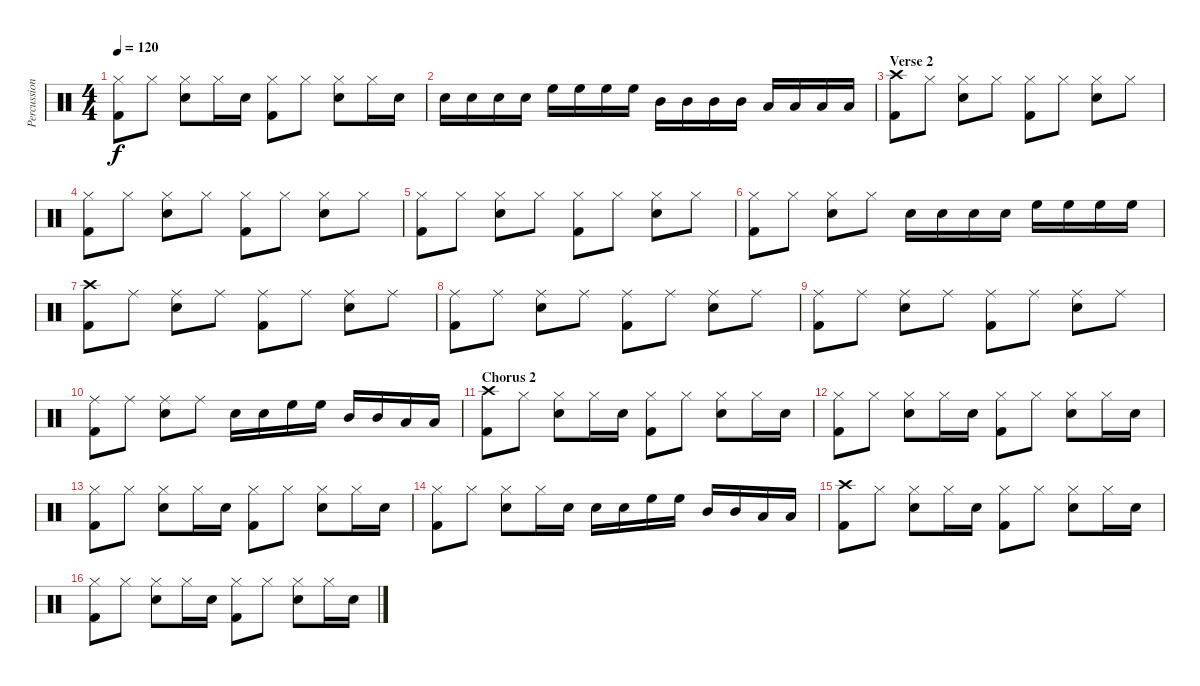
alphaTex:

\track ("Percussion" "Percussion") {instrument percussion}
\staff {score}
\articulation defaults
\ts (4 4)
\tempo 120
\clef neutral
\ks c
("Hi-Hat (closed)" "Kick (hit) 2").8{dy f} "Hi-Hat (closed)".8 ("Electric Snare (hit)" "Hi-Hat (closed)").8 "Hi-Hat (closed)".16 "Electric Snare (hit)".16 ("Hi-Hat (closed)" "Kick (hit) 2").8 "Hi-Hat (closed)".8 ("Electric Snare (hit)" "Hi-Hat (closed)").8 "Hi-Hat (closed)".16 "Electric Snare (hit)".16 |
"Electric Snare (hit)".16 "Electric Snare (hit)".16 "Electric Snare (hit)".16 "Electric Snare (hit)".16 "High Floor Tom (hit)".16 "High Floor Tom (hit)".16 "High Floor Tom (hit)".16 "High Floor Tom (hit)".16 "Mid Tom (hit)".16 "Mid Tom (hit)".16 "Mid Tom (hit)".16 "Mid Tom (hit)".16 "Low Tom (hit)".16 "Low Tom (hit)".16 "Low Tom (hit)".16 "Low Tom (hit)".16 |
\section ("" "Verse 2")
("Crash high (hit)" "Kick (hit) 2").8 "Hi-Hat (closed)".8 ("Hi-Hat (closed)" "Electric Snare (hit)").8 "Hi-Hat (closed)".8 ("Hi-Hat (closed)" "Kick (hit) 2").8 "Hi-Hat (closed)".8 ("Hi-Hat (closed)" "Electric Snare (hit)").8 "Hi-Hat (closed)".8 |
("Hi-Hat (closed)" "Kick (hit) 2").8 "Hi-Hat (closed)".8 ("Hi-Hat (closed)" "Electric Snare (hit)").8 "Hi-Hat (closed)".8 ("Hi-Hat (closed)" "Kick (hit) 2").8 "Hi-Hat (closed)".8 ("Hi-Hat (closed)" "Electric Snare (hit)").8 "Hi-Hat (closed)".8 |
("Hi-Hat (closed)" "Kick (hit) 2").8 "Hi-Hat (closed)".8 ("Hi-Hat (closed)" "Electric Snare (hit)").8 "Hi-Hat (closed)".8 ("Hi-Hat (closed)" "Kick (hit) 2").8 "Hi-Hat (closed)".8 ("Hi-Hat (closed)" "Electric Snare (hit)").8 "Hi-Hat (closed)".8 |
("Hi-Hat (closed)" "Kick (hit) 2").8 "Hi-Hat (closed)".8 ("Hi-Hat (closed)" "Electric Snare (hit)").8 "Hi-Hat (closed)".8 "Electric Snare (hit)".16 "Electric Snare (hit)".16 "Electric Snare (hit)".16 "Electric Snare (hit)".16 "High Floor Tom (hit)".16 "High Floor Tom (hit)".16 "High Floor Tom (hit)".16 "High Floor Tom (hit)".16 |
("Crash high (hit)" "Kick (hit) 2").8 "Ride (middle)".8 ("Ride (middle)" "Electric Snare (hit)").8 "Ride (middle)".8 ("Ride (middle)" "Kick (hit) 2").8 "Ride (middle)".8 ("Ride (middle)" "Electric Snare (hit)").8 "Ride (middle)".8 |
("Ride (middle)" "Kick (hit) 2").8 "Ride (middle)".8 ("Ride (middle)" "Electric Snare (hit)").8 "Ride (middle)".8 ("Ride (middle)" "Kick (hit) 2").8 "Ride (middle)".8 ("Ride (middle)" "Electric Snare (hit)").8 "Ride (middle)".8 |
("Ride (middle)" "Kick (hit) 2").8 "Ride (middle)".8 ("Ride (middle)" "Electric Snare (hit)").8 "Ride (middle)".8 ("Ride (middle)" "Kick (hit) 2").8 "Ride (middle)".8 ("Ride (middle)" "Electric Snare (hit)").8 "Ride (middle)".8 |
("Ride (middle)" "Kick (hit) 2").8 "Ride (middle)".8 ("Ride (middle)" "Electric Snare (hit)").8 "Ride (middle)".8 "Electric Snare (hit)".16 "Electric Snare (hit)".16 "High Floor Tom (hit)".16 "High Floor Tom (hit)".16 "Mid Tom (hit)".16 "Mid Tom (hit)".16 "Low Tom (hit)".16 "Low Tom (hit)".16 |
\section ("" "Chorus 2")
("Crash high (hit)" "Kick (hit) 2").8 "Hi-Hat (closed)".8 ("Electric Snare (hit)" "Hi-Hat (closed)").8 "Hi-Hat (closed)".16 "Electric Snare (hit)".16 ("Hi-Hat (closed)" "Kick (hit) 2").8 "Hi-Hat (closed)".8 ("Electric Snare (hit)" "Hi-Hat (closed)").8 "Hi-Hat (closed)".16 "Electric Snare (hit)".16 |
("Hi-Hat (closed)" "Kick (hit) 2").8 "Hi-Hat (closed)".8 ("Electric Snare (hit)" "Hi-Hat (closed)").8 "Hi-Hat (closed)".16 "Electric Snare (hit)".16 ("Hi-Hat (closed)" "Kick (hit) 2").8 "Hi-Hat (closed)".8 ("Electric Snare (hit)" "Hi-Hat (closed)").8 "Hi-Hat (closed)".16 "Electric Snare (hit)".16 |
("Hi-Hat (closed)" "Kick (hit) 2").8 "Hi-Hat (closed)".8 ("Electric Snare (hit)" "Hi-Hat (closed)").8 "Hi-Hat (closed)".16 "Electric Snare (hit)".16 ("Hi-Hat (closed)" "Kick (hit) 2").8 "Hi-Hat (closed)".8 ("Electric Snare (hit)" "Hi-Hat (closed)").8 "Hi-Hat (closed)".16 "Electric Snare (hit)".16 |
("Hi-Hat (closed)" "Kick (hit) 2").8 "Hi-Hat (closed)".8 ("Electric Snare (hit)" "Hi-Hat (closed)").8 "Hi-Hat (closed)".16 "Electric Snare (hit)".16 "Electric Snare (hit)".16 "Electric Snare (hit)".16 "High Floor Tom (hit)".16 "High Floor Tom (hit)".16 "Mid Tom (hit)".16 "Mid Tom (hit)".16 "Low Tom (hit)".16 "Low Tom (hit)".16 |
("Crash high (hit)" "Kick (hit) 2").8 "Hi-Hat (closed)".8 ("Electric Snare (hit)" "Hi-Hat (closed)").8 "Hi-Hat (closed)".16 "Electric Snare (hit)".16 ("Hi-Hat (closed)" "Kick (hit) 2").8 "Hi-Hat (closed)".8 ("Electric Snare (hit)" "Hi-Hat (closed)").8 "Hi-Hat (closed)".16 "Electric Snare (hit)".16 |
("Hi-Hat (closed)" "Kick (hit) 2").8 "Hi-Hat (closed)".8 ("Electric Snare (hit)" "Hi-Hat (closed)").8 "Hi-Hat (closed)".16 "Electric Snare (hit)".16 ("Hi-Hat (closed)" "Kick (hit) 2").8 "Hi-Hat (closed)".8 ("Electric Snare (hit)" "Hi-Hat (closed)").8 "Hi-Hat (closed)".16 "Electric Snare (hit)".16
